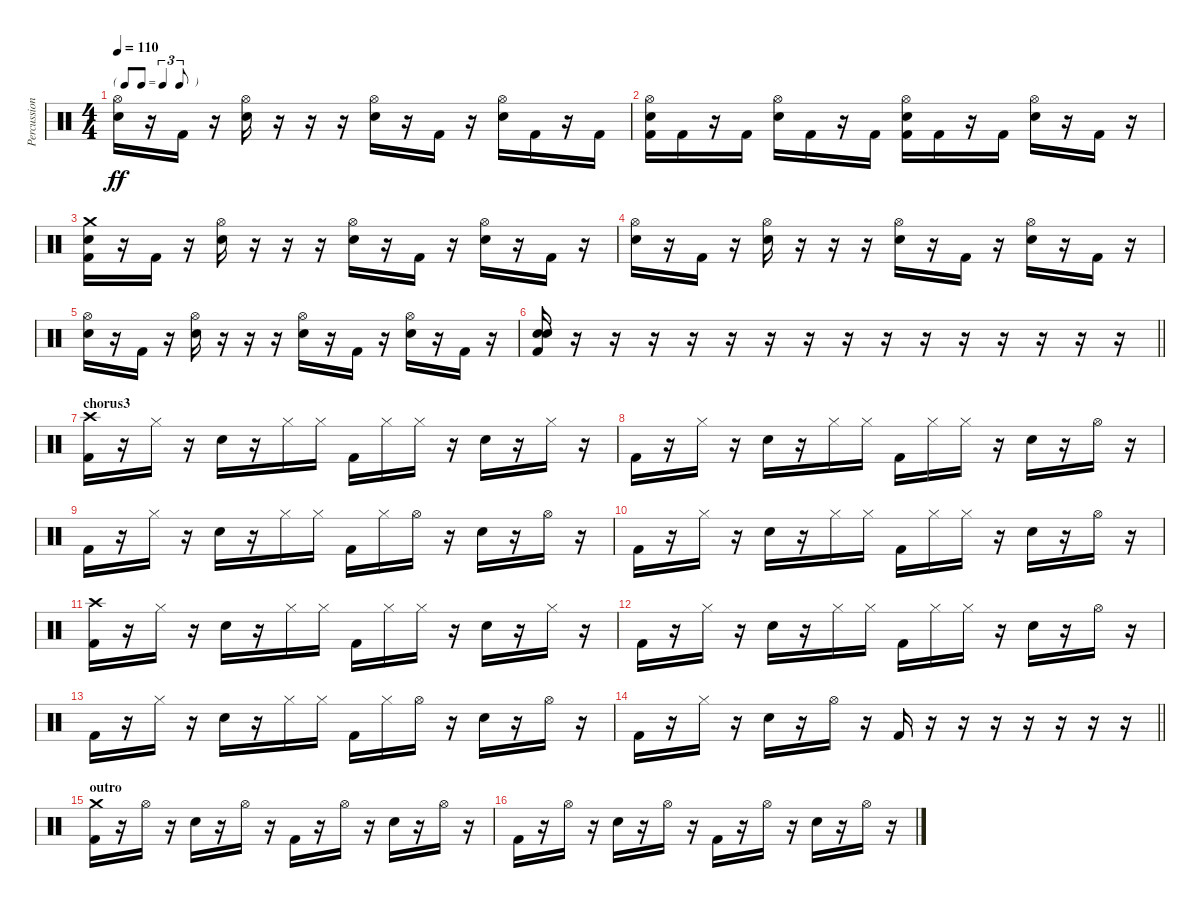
\track ("Percussion" "Percussion") {instrument percussion}
\staff {score}
\articulation defaults
\ts (4 4)
\tf triplet8th
\tempo 110
\clef neutral
\ks c
("Hi-Hat (open)" "Electric Snare (hit)").16{dy ff} r.16 "Kick (hit) 2".16 r.16 ("Hi-Hat (open)" "Electric Snare (hit)").16 r.16 r.16 r.16 ("Hi-Hat (open)" "Electric Snare (hit)").16 r.16 "Kick (hit) 2".16 r.16 ("Hi-Hat (open)" "Electric Snare (hit)").16 "Kick (hit) 2".16 r.16 "Kick (hit) 2".16 |
("Hi-Hat (open)" "Electric Snare (hit)" "Kick (hit) 2").16 "Kick (hit) 2".16 r.16 "Kick (hit) 2".16 ("Hi-Hat (open)" "Electric Snare (hit)").16 "Kick (hit) 2".16 r.16 "Kick (hit) 2".16 ("Hi-Hat (open)" "Electric Snare (hit)" "Kick (hit) 2").16 "Kick (hit) 2".16 r.16 "Kick (hit) 2".16 ("Hi-Hat (open)" "Electric Snare (hit)").16 r.16 "Kick (hit) 2".16 r.16 |
("Crash medium (hit)" "Electric Snare (hit)" "Kick (hit) 2").16 r.16 "Kick (hit) 2".16 r.16 ("Hi-Hat (open)" "Electric Snare (hit)").16 r.16 r.16 r.16 ("Hi-Hat (open)" "Electric Snare (hit)").16 r.16 "Kick (hit) 2".16 r.16 ("Hi-Hat (open)" "Electric Snare (hit)").16 r.16 "Kick (hit) 2".16 r.16 |
("Hi-Hat (open)" "Electric Snare (hit)").16 r.16 "Kick (hit) 2".16 r.16 ("Hi-Hat (open)" "Electric Snare (hit)").16 r.16 r.16 r.16 ("Hi-Hat (open)" "Electric Snare (hit)").16 r.16 "Kick (hit) 2".16 r.16 ("Hi-Hat (open)" "Electric Snare (hit)").16 r.16 "Kick (hit) 2".16 r.16 |
("Hi-Hat (open)" "Electric Snare (hit)").16 r.16 "Kick (hit) 2".16 r.16 ("Hi-Hat (open)" "Electric Snare (hit)").16 r.16 r.16 r.16 ("Hi-Hat (open)" "Electric Snare (hit)").16 r.16 "Kick (hit) 2".16 r.16 ("Hi-Hat (open)" "Electric Snare (hit)").16 r.16 "Kick (hit) 2".16 r.16 |
\barLineRight lightlight
("Electric Snare (hit)" "Electric Snare (hit)" "Kick (hit) 2").16 r.16 r.16 r.16 r.16 r.16 r.16 r.16 r.16 r.16 r.16 r.16 r.16 r.16 r.16 r.16 |
\section ("" "chorus3")
("Crash high (hit)" "Kick (hit) 2").16 r.16 "Hi-Hat (closed)".16 r.16 "Electric Snare (hit)".16 r.16 "Hi-Hat (closed)".16 "Hi-Hat (closed)".16 "Kick (hit) 2".16 "Hi-Hat (closed)".16 "Hi-Hat (closed)".16 r.16 "Electric Snare (hit)".16 r.16 "Hi-Hat (closed)".16 r.16 |
"Kick (hit) 2".16 r.16 "Hi-Hat (closed)".16 r.16 "Electric Snare (hit)".16 r.16 "Hi-Hat (closed)".16 "Hi-Hat (closed)".16 "Kick (hit) 2".16 "Hi-Hat (closed)".16 "Hi-Hat (closed)".16 r.16 "Electric Snare (hit)".16 r.16 "Hi-Hat (open)".16 r.16 |
"Kick (hit) 2".16 r.16 "Hi-Hat (closed)".16 r.16 "Electric Snare (hit)".16 r.16 "Hi-Hat (closed)".16 "Hi-Hat (closed)".16 "Kick (hit) 2".16 "Hi-Hat (closed)".16 "Hi-Hat (open)".16 r.16 "Electric Snare (hit)".16 r.16 "Hi-Hat (open)".16 r.16 |
"Kick (hit) 2".16 r.16 "Hi-Hat (closed)".16 r.16 "Electric Snare (hit)".16 r.16 "Hi-Hat (closed)".16 "Hi-Hat (closed)".16 "Kick (hit) 2".16 "Hi-Hat (closed)".16 "Hi-Hat (closed)".16 r.16 "Electric Snare (hit)".16 r.16 "Hi-Hat (open)".16 r.16 |
("Crash high (hit)" "Kick (hit) 2").16 r.16 "Hi-Hat (closed)".16 r.16 "Electric Snare (hit)".16 r.16 "Hi-Hat (closed)".16 "Hi-Hat (closed)".16 "Kick (hit) 2".16 "Hi-Hat (closed)".16 "Hi-Hat (closed)".16 r.16 "Electric Snare (hit)".16 r.16 "Hi-Hat (closed)".16 r.16 |
"Kick (hit) 2".16 r.16 "Hi-Hat (closed)".16 r.16 "Electric Snare (hit)".16 r.16 "Hi-Hat (closed)".16 "Hi-Hat (closed)".16 "Kick (hit) 2".16 "Hi-Hat (closed)".16 "Hi-Hat (closed)".16 r.16 "Electric Snare (hit)".16 r.16 "Hi-Hat (open)".16 r.16 |
"Kick (hit) 2".16 r.16 "Hi-Hat (closed)".16 r.16 "Electric Snare (hit)".16 r.16 "Hi-Hat (closed)".16 "Hi-Hat (closed)".16 "Kick (hit) 2".16 "Hi-Hat (closed)".16 "Hi-Hat (open)".16 r.16 "Electric Snare (hit)".16 r.16 "Hi-Hat (open)".16 r.16 |
\barLineRight lightlight "Kick (hit) 2".16
r.16 "Hi-Hat (closed)".16 r.16 "Electric Snare (hit)".16 r.16 "Hi-Hat (open)".16 r.16 "Kick (hit) 2".16 r.16 r.16 r.16 r.16 r.16 r.16 r.16 |
\section ("" "outro")
("Crash medium (hit)" "Kick (hit) 2").16 r.16 "Hi-Hat (open)".16 r.16 "Electric Snare (hit)".16 r.16 "Hi-Hat (open)".16 r.16 "Kick (hit) 2".16 r.16 "Hi-Hat (open)".16 r.16 "Electric Snare (hit)".16 r.16 "Hi-Hat (open)".16 r.16 |
"Kick (hit) 2".16 r.16 "Hi-Hat (open)".16 r.16 "Electric Snare (hit)".16 r.16 "Hi-Hat (open)".16 r.16 "Kick (hit) 2".16 r.16 "Hi-Hat (open)".16 r.16 "Electric Snare (hit)".16 r.16 "Hi-Hat (open)".16 r.16
